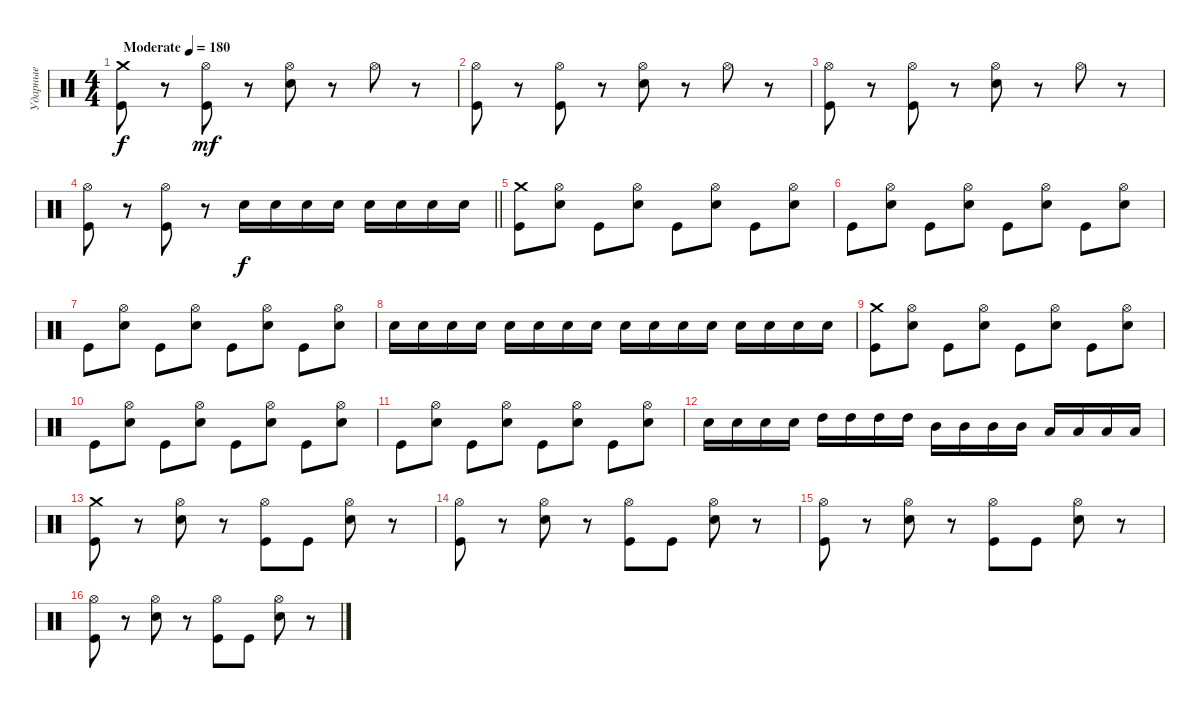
\track ("Ударные" "Ударные") {instrument percussion}
\staff {score}
\articulation defaults
\ts (4 4)
\tempo (180 "Moderate")
\clef neutral
\ks c
("Kick (hit)" "Crash medium (hit)").8{dy f} r.8 ("Kick (hit)" "Hi-Hat (open)").8{dy mf} r.8 ("Electric Snare (hit)" "Hi-Hat (open)").8 r.8 "Hi-Hat (open)".8 r.8 |
("Kick (hit)" "Hi-Hat (open)").8 r.8 ("Kick (hit)" "Hi-Hat (open)").8 r.8 ("Electric Snare (hit)" "Hi-Hat (open)").8 r.8 "Hi-Hat (open)".8 r.8 |
("Kick (hit)" "Hi-Hat (open)").8 r.8 ("Kick (hit)" "Hi-Hat (open)").8 r.8 ("Electric Snare (hit)" "Hi-Hat (open)").8 r.8 "Hi-Hat (open)".8 r.8 |
\barLineRight lightlight
("Kick (hit)" "Hi-Hat (open)").8 r.8 ("Kick (hit)" "Hi-Hat (open)").8 r.8 "Electric Snare (hit)".16{dy f} "Electric Snare (hit)".16 "Electric Snare (hit)".16 "Electric Snare (hit)".16 "Electric Snare (hit)".16 "Electric Snare (hit)".16 "Electric Snare (hit)".16 "Electric Snare (hit)".16 |
("Crash medium (hit)" "Kick (hit)").8 ("Hi-Hat (open)" "Electric Snare (hit)").8 "Kick (hit)".8 ("Hi-Hat (open)" "Electric Snare (hit)").8 "Kick (hit)".8 ("Hi-Hat (open)" "Electric Snare (hit)").8 "Kick (hit)".8 ("Hi-Hat (open)" "Electric Snare (hit)").8 |
"Kick (hit)".8 ("Hi-Hat (open)" "Electric Snare (hit)").8 "Kick (hit)".8 ("Hi-Hat (open)" "Electric Snare (hit)").8 "Kick (hit)".8 ("Hi-Hat (open)" "Electric Snare (hit)").8 "Kick (hit)".8 ("Hi-Hat (open)" "Electric Snare (hit)").8 |
"Kick (hit)".8 ("Hi-Hat (open)" "Electric Snare (hit)").8 "Kick (hit)".8 ("Hi-Hat (open)" "Electric Snare (hit)").8 "Kick (hit)".8 ("Hi-Hat (open)" "Electric Snare (hit)").8 "Kick (hit)".8 ("Hi-Hat (open)" "Electric Snare (hit)").8 |
"Electric Snare (hit)".16 "Electric Snare (hit)".16 "Electric Snare (hit)".16 "Electric Snare (hit)".16 "Electric Snare (hit)".16 "Electric Snare (hit)".16 "Electric Snare (hit)".16 "Electric Snare (hit)".16 "Electric Snare (hit)".16 "Electric Snare (hit)".16 "Electric Snare (hit)".16 "Electric Snare (hit)".16 "Electric Snare (hit)".16 "Electric Snare (hit)".16 "Electric Snare (hit)".16 "Electric Snare (hit)".16 |
("Crash medium (hit)" "Kick (hit)").8 ("Hi-Hat (open)" "Electric Snare (hit)").8 "Kick (hit)".8 ("Hi-Hat (open)" "Electric Snare (hit)").8 "Kick (hit)".8 ("Hi-Hat (open)" "Electric Snare (hit)").8 "Kick (hit)".8 ("Hi-Hat (open)" "Electric Snare (hit)").8 |
"Kick (hit)".8 ("Hi-Hat (open)" "Electric Snare (hit)").8 "Kick (hit)".8 ("Hi-Hat (open)" "Electric Snare (hit)").8 "Kick (hit)".8 ("Hi-Hat (open)" "Electric Snare (hit)").8 "Kick (hit)".8 ("Hi-Hat (open)" "Electric Snare (hit)").8 |
"Kick (hit)".8 ("Hi-Hat (open)" "Electric Snare (hit)").8 "Kick (hit)".8 ("Hi-Hat (open)" "Electric Snare (hit)").8 "Kick (hit)".8 ("Hi-Hat (open)" "Electric Snare (hit)").8 "Kick (hit)".8 ("Hi-Hat (open)" "Electric Snare (hit)").8 |
"Electric Snare (hit)".16 "Electric Snare (hit)".16 "Electric Snare (hit)".16 "Electric Snare (hit)".16 "High Tom (hit)".16 "High Tom (hit)".16 "High Tom (hit)".16 "High Tom (hit)".16 "Mid Tom (hit)".16 "Mid Tom (hit)".16 "Mid Tom (hit)".16 "Mid Tom (hit)".16 "Low Tom (hit)".16 "Low Tom (hit)".16 "Low Tom (hit)".16 "Low Tom (hit)".16 |
("Crash medium (hit)" "Kick (hit)").8 r.8 ("Hi-Hat (open)" "Electric Snare (hit)").8 r.8 ("Hi-Hat (open)" "Kick (hit)").8 "Kick (hit)".8 ("Hi-Hat (open)" "Electric Snare (hit)").8 r.8 |
("Hi-Hat (open)" "Kick (hit)").8 r.8 ("Hi-Hat (open)" "Electric Snare (hit)").8 r.8 ("Hi-Hat (open)" "Kick (hit)").8 "Kick (hit)".8 ("Hi-Hat (open)" "Electric Snare (hit)").8 r.8 |
("Hi-Hat (open)" "Kick (hit)").8 r.8 ("Hi-Hat (open)" "Electric Snare (hit)").8 r.8 ("Hi-Hat (open)" "Kick (hit)").8 "Kick (hit)".8 ("Hi-Hat (open)" "Electric Snare (hit)").8 r.8 |
("Hi-Hat (open)" "Kick (hit)").8 r.8 ("Hi-Hat (open)" "Electric Snare (hit)").8 r.8 ("Hi-Hat (open)" "Kick (hit)").8 "Kick (hit)".8 ("Hi-Hat (open)" "Electric Snare (hit)").8 r.8
